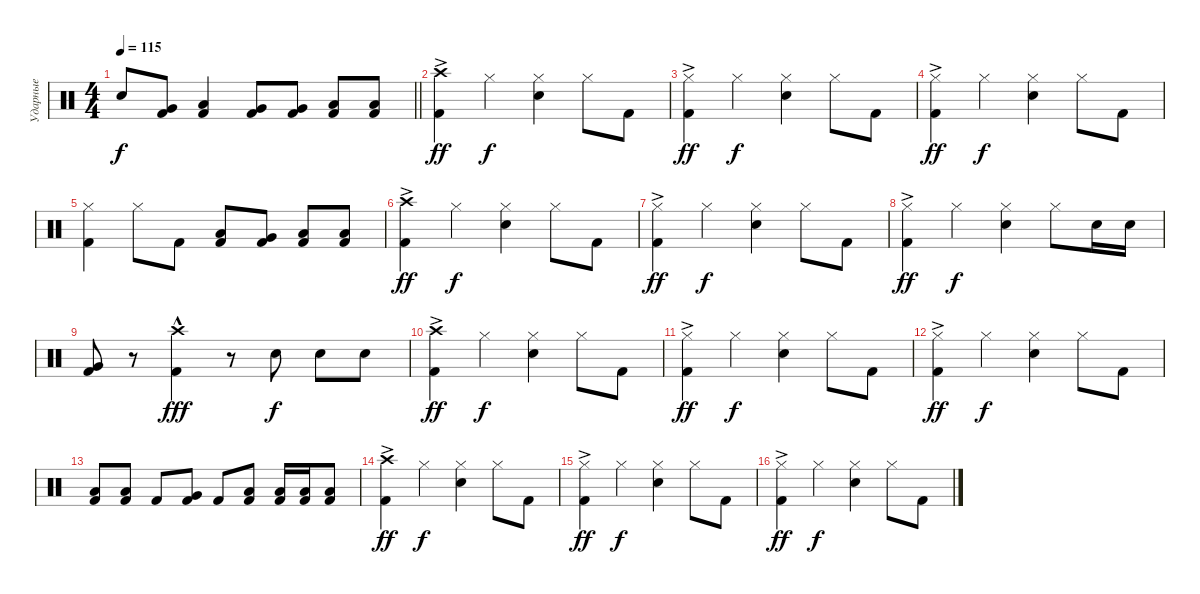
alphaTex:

\track ("Ударные" "Ударные") {instrument percussion}
\staff {score}
\articulation defaults
\ts (4 4)
\tempo 115
\clef neutral
\barLineRight lightlight
\ks c "Snare (hit) 2".8{dy f}
("Kick (hit) 2" "Very Low Tom (hit)").8 ("Kick (hit) 2" "Low Floor Tom (hit)").4 ("Kick (hit) 2" "Very Low Tom (hit)").8 ("Kick (hit) 2" "Very Low Tom (hit)").8 ("Kick (hit) 2" "Low Floor Tom (hit)").8 ("Kick (hit) 2" "Low Floor Tom (hit)").8 |
("Kick (hit) 2" "Crash high (hit)"{ac}).4{dy ff} "Hi-Hat (closed)".4{dy f} ("Snare (hit) 2" "Hi-Hat (closed)").4 "Hi-Hat (closed)".8 "Kick (hit) 2".8 |
("Kick (hit) 2" "Hi-Hat (closed)"{ac}).4{dy ff} "Hi-Hat (closed)".4{dy f} ("Snare (hit) 2" "Hi-Hat (closed)").4 "Hi-Hat (closed)".8 "Kick (hit) 2".8 |
("Kick (hit) 2" "Hi-Hat (closed)"{ac}).4{dy ff} "Hi-Hat (closed)".4{dy f} ("Snare (hit) 2" "Hi-Hat (closed)").4 "Hi-Hat (closed)".8 "Kick (hit) 2".8 |
("Kick (hit) 2" "Hi-Hat (closed)").4 "Hi-Hat (closed)".8 "Kick (hit) 2".8 ("Kick (hit) 2" "Low Tom (hit)").8 ("Kick (hit) 2" "Very Low Tom (hit)").8 ("Kick (hit) 2" "Low Floor Tom (hit)").8 ("Kick (hit) 2" "Low Floor Tom (hit)").8 |
("Kick (hit) 2" "Crash high (hit)"{ac}).4{dy ff} "Hi-Hat (closed)".4{dy f} ("Snare (hit) 2" "Hi-Hat (closed)").4 "Hi-Hat (closed)".8 "Kick (hit) 2".8 |
("Kick (hit) 2" "Hi-Hat (closed)"{ac}).4{dy ff} "Hi-Hat (closed)".4{dy f} ("Snare (hit) 2" "Hi-Hat (closed)").4 "Hi-Hat (closed)".8 "Kick (hit) 2".8 |
("Kick (hit) 2" "Hi-Hat (closed)"{ac}).4{dy ff} "Hi-Hat (closed)".4{dy f} ("Snare (hit) 2" "Hi-Hat (closed)").4 "Hi-Hat (closed)".8 "Snare (hit) 2".16 "Snare (hit) 2".16 |
("Kick (hit) 2" "Very Low Tom (hit)").8 r.8 ("Kick (hit) 2" "Crash high (hit)"{hac}).4{dy fff} r.8 "Snare (hit) 2".8{dy f} "Snare (hit) 2".8 "Snare (hit) 2".8 |
("Kick (hit) 2" "Crash high (hit)"{ac}).4{dy ff} "Hi-Hat (closed)".4{dy f} ("Snare (hit) 2" "Hi-Hat (closed)").4 "Hi-Hat (closed)".8 "Kick (hit) 2".8 |
("Kick (hit) 2" "Hi-Hat (closed)"{ac}).4{dy ff} "Hi-Hat (closed)".4{dy f} ("Snare (hit) 2" "Hi-Hat (closed)").4 "Hi-Hat (closed)".8 "Kick (hit) 2".8 |
("Kick (hit) 2" "Hi-Hat (closed)"{ac}).4{dy ff} "Hi-Hat (closed)".4{dy f} ("Snare (hit) 2" "Hi-Hat (closed)").4 "Hi-Hat (closed)".8 "Kick (hit) 2".8 |
("Kick (hit) 2" "Low Tom (hit)").8 ("Kick (hit) 2" "Low Tom (hit)").8 "Kick (hit) 2".8 ("Kick (hit) 2" "Very Low Tom (hit)").8 "Kick (hit) 2".8 ("Kick (hit) 2" "Low Floor Tom (hit)").8 ("Kick (hit) 2" "Low Floor Tom (hit)").16 ("Kick (hit) 2" "Low Floor Tom (hit)").16 ("Kick (hit) 2" "Low Floor Tom (hit)").8 |
("Kick (hit) 2" "Crash high (hit)"{ac}).4{dy ff} "Hi-Hat (closed)".4{dy f} ("Snare (hit) 2" "Hi-Hat (closed)").4 "Hi-Hat (closed)".8 "Kick (hit) 2".8 |
("Kick (hit) 2" "Hi-Hat (closed)"{ac}).4{dy ff} "Hi-Hat (closed)".4{dy f} ("Snare (hit) 2" "Hi-Hat (closed)").4 "Hi-Hat (closed)".8 "Kick (hit) 2".8 |
("Kick (hit) 2" "Hi-Hat (closed)"{ac}).4{dy ff} "Hi-Hat (closed)".4{dy f} ("Snare (hit) 2" "Hi-Hat (closed)").4 "Hi-Hat (closed)".8 "Kick (hit) 2".8
